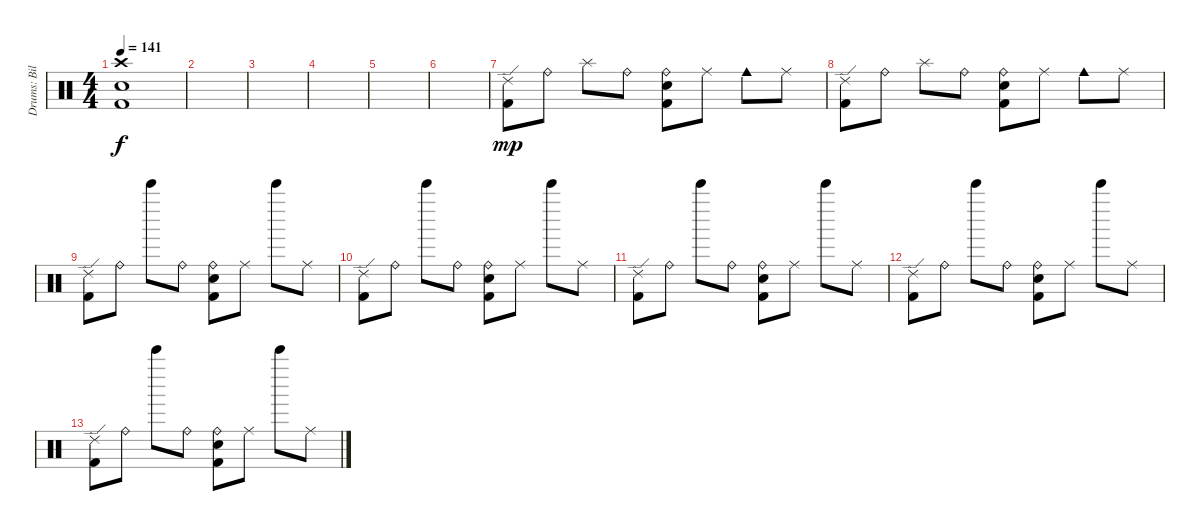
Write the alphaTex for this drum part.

\track ("Drums: Bill" "Drums: Bil") {instrument percussion}
\staff {score}
\articulation defaults
\ts (4 4)
\tempo 141
\clef neutral
\ks c
("Crash high (hit)" "Snare (hit) 2" "Kick (hit) 2").1{dy f} |
|
|
|
|
|
("Ride (edge) 2" "Kick (hit) 2").8{dy mp} "Ride (bell)".8 "Splash (hit)".8 "Ride (bell)".8 ("Ride (bell)" "Snare (hit) 2" "Kick (hit) 2").8 "Ride (middle)".8 "Cowbell medium (hit)".8 "Ride (middle)".8 |
("Ride (edge) 2" "Kick (hit) 2").8 "Ride (bell)".8 "Splash (hit)".8 "Ride (bell)".8 ("Ride (bell)" "Snare (hit) 2" "Kick (hit) 2").8 "Ride (middle)".8 "Cowbell medium (hit)".8 "Ride (middle)".8 |
("Ride (edge) 2" "Kick (hit) 2").8 "Ride (bell)".8 "Bell Tree (hit)".8 "Ride (bell)".8 ("Ride (bell)" "Snare (hit) 2" "Kick (hit) 2").8 "Ride (middle)".8 "Bell Tree (hit)".8 "Ride (middle)".8 |
("Ride (edge) 2" "Kick (hit) 2").8 "Ride (bell)".8 "Bell Tree (hit)".8 "Ride (bell)".8 ("Ride (bell)" "Snare (hit) 2" "Kick (hit) 2").8 "Ride (middle)".8 "Bell Tree (hit)".8 "Ride (middle)".8 |
("Ride (edge) 2" "Kick (hit) 2").8 "Ride (bell)".8 "Bell Tree (hit)".8 "Ride (bell)".8 ("Ride (bell)" "Snare (hit) 2" "Kick (hit) 2").8 "Ride (middle)".8 "Bell Tree (hit)".8 "Ride (middle)".8 |
("Ride (edge) 2" "Kick (hit) 2").8 "Ride (bell)".8 "Bell Tree (hit)".8 "Ride (bell)".8 ("Ride (bell)" "Snare (hit) 2" "Kick (hit) 2").8 "Ride (middle)".8 "Bell Tree (hit)".8 "Ride (middle)".8 |
("Ride (edge) 2" "Kick (hit) 2").8 "Ride (bell)".8 "Bell Tree (hit)".8 "Ride (bell)".8 ("Ride (bell)" "Snare (hit) 2" "Kick (hit) 2").8 "Ride (middle)".8 "Bell Tree (hit)".8 "Ride (middle)".8
